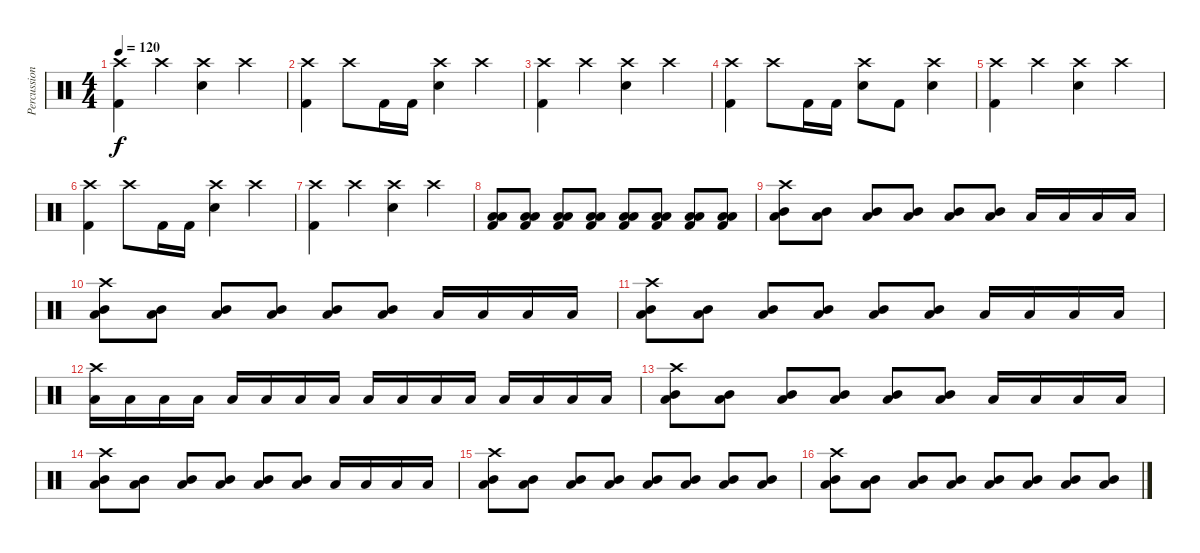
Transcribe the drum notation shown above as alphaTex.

\track ("Percussions" "Percussion") {instrument percussion}
\staff {score}
\articulation defaults
\ts (4 4)
\tempo 120
\clef neutral
\ks c
("Crash high (hit)" "Kick (hit) 2").4{dy f} "Crash high (hit)".4 ("Crash high (hit)" "Electric Snare (hit)").4 "Crash high (hit)".4 |
("Crash high (hit)" "Kick (hit) 2").4 "Crash high (hit)".8 "Kick (hit) 2".16 "Kick (hit) 2".16 ("Crash high (hit)" "Electric Snare (hit)").4 "Crash high (hit)".4 |
("Crash high (hit)" "Kick (hit) 2").4 "Crash high (hit)".4 ("Crash high (hit)" "Electric Snare (hit)").4 "Crash high (hit)".4 |
("Crash high (hit)" "Kick (hit) 2").4 "Crash high (hit)".8 "Kick (hit) 2".16 "Kick (hit) 2".16 ("Crash high (hit)" "Electric Snare (hit)").8 "Kick (hit) 2".8 ("Crash high (hit)" "Electric Snare (hit)").4 |
("Crash high (hit)" "Kick (hit) 2").4 "Crash high (hit)".4 ("Crash high (hit)" "Electric Snare (hit)").4 "Crash high (hit)".4 |
("Crash high (hit)" "Kick (hit) 2").4 "Crash high (hit)".8 "Kick (hit) 2".16 "Kick (hit) 2".16 ("Crash high (hit)" "Electric Snare (hit)").4 "Crash high (hit)".4 |
("Crash high (hit)" "Kick (hit) 2").4 "Crash high (hit)".4 ("Crash high (hit)" "Electric Snare (hit)").4 "Crash high (hit)".4 |
("Low Tom (hit)" "Low Tom (hit)" "Kick (hit) 2").8 ("Low Tom (hit)" "Low Tom (hit)" "Kick (hit) 2").8 ("Low Tom (hit)" "Low Tom (hit)" "Kick (hit) 2").8 ("Low Tom (hit)" "Low Tom (hit)" "Kick (hit) 2").8 ("Low Tom (hit)" "Low Tom (hit)" "Kick (hit) 2").8 ("Low Tom (hit)" "Low Tom (hit)" "Kick (hit) 2").8 ("Low Tom (hit)" "Low Tom (hit)" "Kick (hit) 2").8 ("Low Tom (hit)" "Low Tom (hit)" "Kick (hit) 2").8 |
("Crash high (hit)" "Mid Tom (hit)" "Low Tom (hit)").8 ("Mid Tom (hit)" "Low Tom (hit)").8 ("Mid Tom (hit)" "Low Tom (hit)").8 ("Mid Tom (hit)" "Low Tom (hit)").8 ("Mid Tom (hit)" "Low Tom (hit)").8 ("Mid Tom (hit)" "Low Tom (hit)").8 "Low Tom (hit)".16 "Low Tom (hit)".16 "Low Tom (hit)".16 "Low Tom (hit)".16 |
("Crash high (hit)" "Mid Tom (hit)" "Low Tom (hit)").8 ("Mid Tom (hit)" "Low Tom (hit)").8 ("Mid Tom (hit)" "Low Tom (hit)").8 ("Mid Tom (hit)" "Low Tom (hit)").8 ("Mid Tom (hit)" "Low Tom (hit)").8 ("Mid Tom (hit)" "Low Tom (hit)").8 "Low Tom (hit)".16 "Low Tom (hit)".16 "Low Tom (hit)".16 "Low Tom (hit)".16 |
("Crash high (hit)" "Mid Tom (hit)" "Low Tom (hit)").8 ("Mid Tom (hit)" "Low Tom (hit)").8 ("Mid Tom (hit)" "Low Tom (hit)").8 ("Mid Tom (hit)" "Low Tom (hit)").8 ("Mid Tom (hit)" "Low Tom (hit)").8 ("Mid Tom (hit)" "Low Tom (hit)").8 "Low Tom (hit)".16 "Low Tom (hit)".16 "Low Tom (hit)".16 "Low Tom (hit)".16 |
("Crash high (hit)" "Low Tom (hit)").16 "Low Tom (hit)".16 "Low Tom (hit)".16 "Low Tom (hit)".16 "Low Tom (hit)".16 "Low Tom (hit)".16 "Low Tom (hit)".16 "Low Tom (hit)".16 "Low Tom (hit)".16 "Low Tom (hit)".16 "Low Tom (hit)".16 "Low Tom (hit)".16 "Low Tom (hit)".16 "Low Tom (hit)".16 "Low Tom (hit)".16 "Low Tom (hit)".16 |
("Crash high (hit)" "Mid Tom (hit)" "Low Tom (hit)").8 ("Mid Tom (hit)" "Low Tom (hit)").8 ("Mid Tom (hit)" "Low Tom (hit)").8 ("Mid Tom (hit)" "Low Tom (hit)").8 ("Mid Tom (hit)" "Low Tom (hit)").8 ("Mid Tom (hit)" "Low Tom (hit)").8 "Low Tom (hit)".16 "Low Tom (hit)".16 "Low Tom (hit)".16 "Low Tom (hit)".16 |
("Crash high (hit)" "Mid Tom (hit)" "Low Tom (hit)").8 ("Mid Tom (hit)" "Low Tom (hit)").8 ("Mid Tom (hit)" "Low Tom (hit)").8 ("Mid Tom (hit)" "Low Tom (hit)").8 ("Mid Tom (hit)" "Low Tom (hit)").8 ("Mid Tom (hit)" "Low Tom (hit)").8 "Low Tom (hit)".16 "Low Tom (hit)".16 "Low Tom (hit)".16 "Low Tom (hit)".16 |
("Crash high (hit)" "Mid Tom (hit)" "Low Tom (hit)").8 ("Mid Tom (hit)" "Low Tom (hit)").8 ("Mid Tom (hit)" "Low Tom (hit)").8 ("Mid Tom (hit)" "Low Tom (hit)").8 ("Mid Tom (hit)" "Low Tom (hit)").8 ("Mid Tom (hit)" "Low Tom (hit)").8 ("Mid Tom (hit)" "Low Tom (hit)").8 ("Mid Tom (hit)" "Low Tom (hit)").8 |
("Crash high (hit)" "Mid Tom (hit)" "Low Tom (hit)").8 ("Mid Tom (hit)" "Low Tom (hit)").8 ("Mid Tom (hit)" "Low Tom (hit)").8 ("Mid Tom (hit)" "Low Tom (hit)").8 ("Mid Tom (hit)" "Low Tom (hit)").8 ("Mid Tom (hit)" "Low Tom (hit)").8 ("Mid Tom (hit)" "Low Tom (hit)").8 ("Mid Tom (hit)" "Low Tom (hit)").8
